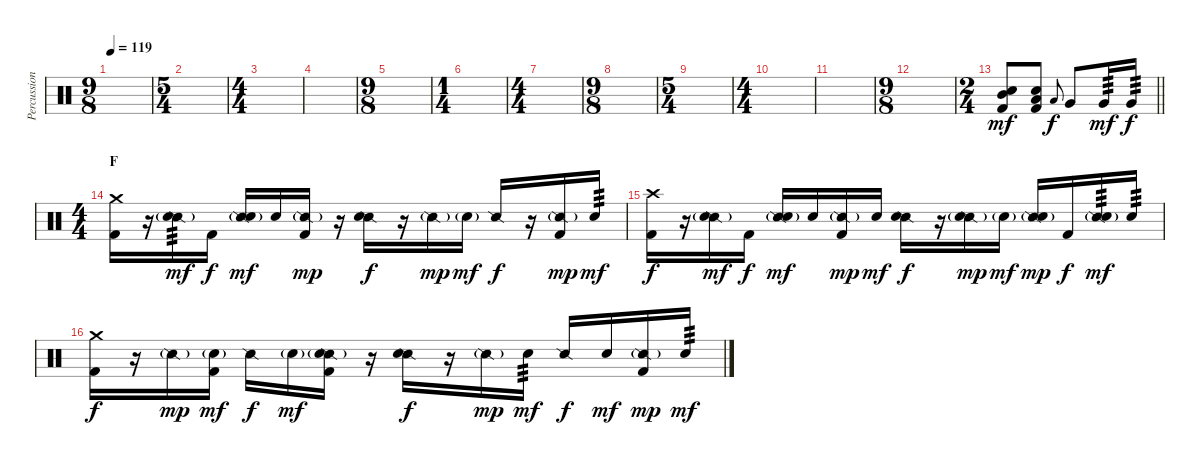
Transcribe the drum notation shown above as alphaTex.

\track ("Percussion" "Percussion") {instrument percussion}
\staff {score}
\articulation defaults
\ts (9 8)
\tempo 119
\clef neutral
\ks c
|
\ts (5 4)
|
\ts (4 4)
|
|
\ts (9 8)
|
\ts (1 4)
|
\ts (4 4)
|
\ts (9 8)
|
\ts (5 4)
|
\ts (4 4)
|
|
\ts (9 8)
|
\ts (2 4)
\barLineRight lightlight
("Mid Tom (hit)" "Snare (hit) 2" "Kick (hit) 2").8{dy mf} ("Snare (hit) 2" "Low Floor Tom (hit)" "Kick (hit) 2").8 "Low Tom (hit)".8{gr onbeat dy f} "Very Low Tom (hit)".8 "Very Low Tom (hit)".16{tp 3 dy mf} "Very Low Tom (hit)".16{tp 3 dy f} |
\ts (4 4)
\section ("" "F")
("Crash medium (hit)" "Kick (hit) 2").16 r.16 ("Snare (side stick) 2"{g} "Snare (hit) 2").16{tp 3 dy mf} "Kick (hit) 2".16{dy f} ("Snare (side stick) 2" "Snare (hit) 2"{g}).16{dy mf} "Snare (hit) 2".16 ("Snare (side stick) 2"{g} "Kick (hit) 2").16{dy mp} r.16 ("Snare (side stick) 2" "Snare (hit) 2").16{dy f} r.16 "Snare (side stick) 2"{g}.16{dy mp} "Snare (hit) 2"{g}.16{dy mf} "Snare (side stick) 2".16{dy f} r.16 ("Snare (side stick) 2"{g} "Kick (hit) 2").16{dy mp} "Snare (hit) 2".16{tp 3 dy mf} |
("Crash high (hit)" "Kick (hit) 2").16{dy f} r.16 ("Snare (side stick) 2"{g} "Snare (hit) 2"{g}).16{dy mf} "Kick (hit) 2".16{dy f} ("Snare (side stick) 2" "Snare (hit) 2"{g}).16{dy mf} "Snare (hit) 2".16 ("Snare (side stick) 2"{g} "Kick (hit) 2").16{dy mp} "Snare (hit) 2".16{dy mf} ("Snare (side stick) 2" "Snare (hit) 2").16{dy f} r.16 ("Snare (side stick) 2"{g} "Snare (hit) 2"{g}).16{dy mp} "Snare (hit) 2"{g}.16{dy mf} ("Snare (side stick) 2" "Snare (hit) 2"{g}).16{dy mp} "Kick (hit) 2".16{dy f} ("Snare (side stick) 2"{g} "Snare (hit) 2").16{tp 3 dy mf} "Snare (hit) 2".16{tp 3} |
("Crash medium (hit)" "Kick (hit) 2").16{dy f} r.16 "Snare (side stick) 2"{g}.16{dy mp} ("Snare (hit) 2"{g} "Kick (hit) 2").16{dy mf} "Snare (side stick) 2".16{dy f} "Snare (hit) 2"{g}.16{dy mf} ("Snare (side stick) 2"{g} "Snare (hit) 2"{g} "Kick (hit) 2").16 r.16 ("Snare (side stick) 2" "Snare (hit) 2").16{dy f} r.16 "Snare (side stick) 2"{g}.16{dy mp} "Snare (hit) 2".16{tp 3 dy mf} "Snare (side stick) 2".16{dy f} "Snare (hit) 2".16{dy mf} ("Snare (side stick) 2"{g} "Kick (hit) 2").16{dy mp} "Snare (hit) 2".16{tp 3 dy mf}
